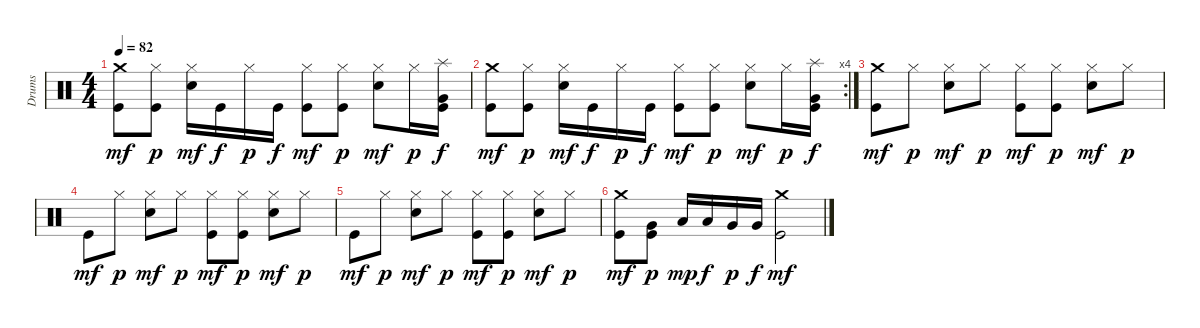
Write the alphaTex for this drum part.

\track ("Drums" "Drums") {instrument percussion}
\staff {score}
\articulation defaults
\ts (4 4)
\tempo 82
\clef neutral
\ks c
("Kick (hit)" "Crash medium (hit)").8{dy mf} ("Hi-Hat (closed)" "Kick (hit)").8{dy p} ("Hi-Hat (closed)" "Electric Snare (hit)").16{dy mf} "Kick (hit)".16{dy f} "Hi-Hat (closed)".16{dy p} "Kick (hit)".16{dy f} ("Hi-Hat (closed)" "Kick (hit)").8{dy mf} ("Hi-Hat (closed)" "Kick (hit)").8{dy p} ("Hi-Hat (closed)" "Electric Snare (hit)").8{dy mf} "Hi-Hat (closed)".16{dy p} ("Splash (hit)" "Kick (hit)" "Very Low Tom (hit)").16{dy f} |
\rc 4
("Kick (hit)" "Crash medium (hit)").8{dy mf} ("Hi-Hat (closed)" "Kick (hit)").8{dy p} ("Hi-Hat (closed)" "Electric Snare (hit)").16{dy mf} "Kick (hit)".16{dy f} "Hi-Hat (closed)".16{dy p} "Kick (hit)".16{dy f} ("Hi-Hat (closed)" "Kick (hit)").8{dy mf} ("Hi-Hat (closed)" "Kick (hit)").8{dy p} ("Hi-Hat (closed)" "Electric Snare (hit)").8{dy mf} "Hi-Hat (closed)".16{dy p} ("Splash (hit)" "Kick (hit)" "Very Low Tom (hit)").16{dy f} |
("Kick (hit)" "Crash medium (hit)").8{dy mf} "Hi-Hat (closed)".8{dy p} ("Hi-Hat (closed)" "Electric Snare (hit)").8{dy mf} "Hi-Hat (closed)".8{dy p} ("Hi-Hat (closed)" "Kick (hit)").8{dy mf} ("Hi-Hat (closed)" "Kick (hit)").8{dy p} ("Hi-Hat (closed)" "Electric Snare (hit)").8{dy mf} "Hi-Hat (closed)".8{dy p} |
"Kick (hit)".8{dy mf} "Hi-Hat (closed)".8{dy p} ("Hi-Hat (closed)" "Electric Snare (hit)").8{dy mf} "Hi-Hat (closed)".8{dy p} ("Hi-Hat (closed)" "Kick (hit)").8{dy mf} ("Hi-Hat (closed)" "Kick (hit)").8{dy p} ("Hi-Hat (closed)" "Electric Snare (hit)").8{dy mf} "Hi-Hat (closed)".8{dy p} |
"Kick (hit)".8{dy mf} "Hi-Hat (closed)".8{dy p} ("Hi-Hat (closed)" "Electric Snare (hit)").8{dy mf} "Hi-Hat (closed)".8{dy p} ("Hi-Hat (closed)" "Kick (hit)").8{dy mf} ("Hi-Hat (closed)" "Kick (hit)").8{dy p} ("Hi-Hat (closed)" "Electric Snare (hit)").8{dy mf} "Hi-Hat (closed)".8{dy p} |
("Kick (hit)" "Crash medium (hit)").8{dy mf} ("Very Low Tom (hit)" "Kick (hit)").8{dy p} "Low Tom (hit)".16{dy mp} "Low Tom (hit)".16{dy f} "Very Low Tom (hit)".16{dy p} "Very Low Tom (hit)".16{dy f} ("Crash medium (hit)" "Kick (hit)").2{dy mf}
